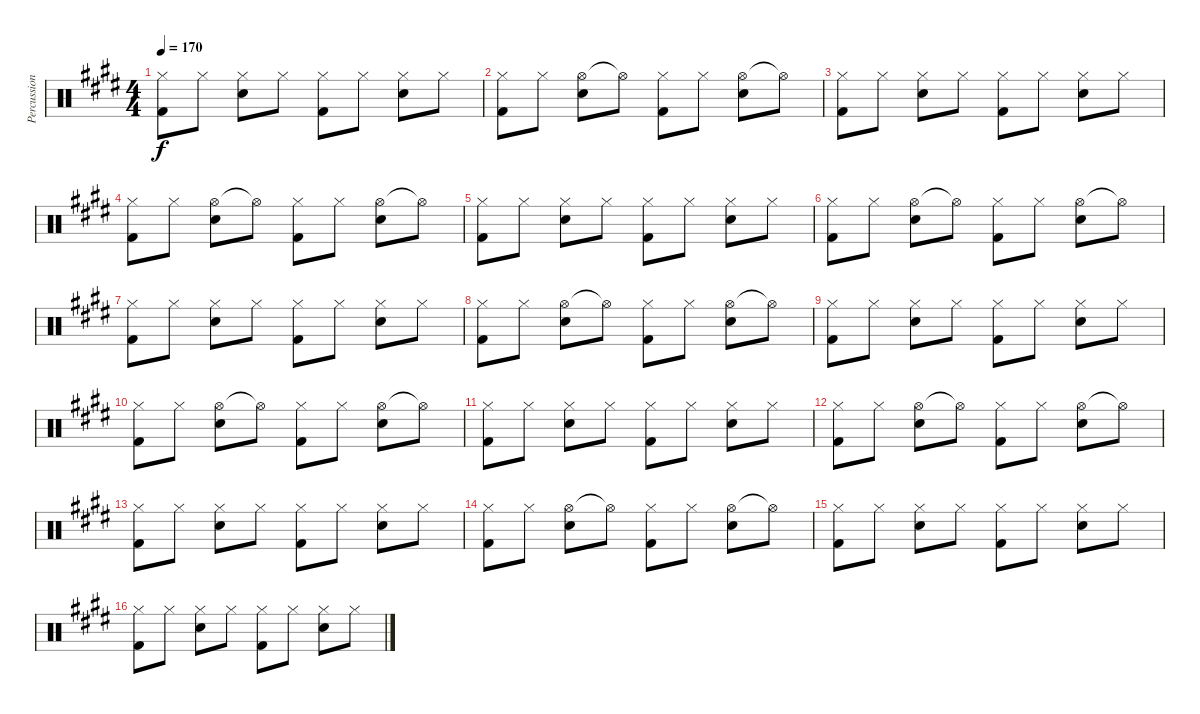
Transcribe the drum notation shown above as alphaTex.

\track ("Percussion" "Percussion") {instrument percussion}
\staff {score}
\articulation defaults
\ts (4 4)
\tempo 170
\clef neutral
\ks e
("Hi-Hat (closed)" "Kick (hit) 2").8{dy f} "Hi-Hat (closed)".8 ("Hi-Hat (closed)" "Snare (hit) 2").8 "Hi-Hat (closed)".8 ("Hi-Hat (closed)" "Kick (hit) 2").8 "Hi-Hat (closed)".8 ("Hi-Hat (closed)" "Snare (hit) 2").8 "Hi-Hat (closed)".8 |
("Hi-Hat (closed)" "Kick (hit) 2").8 "Hi-Hat (closed)".8 ("Hi-Hat (open)" "Snare (hit) 2").8 "Hi-Hat (open)"{t}.8 ("Hi-Hat (closed)" "Kick (hit) 2").8 "Hi-Hat (closed)".8 ("Hi-Hat (open)" "Snare (hit) 2").8 "Hi-Hat (open)"{t}.8 |
("Hi-Hat (closed)" "Kick (hit) 2").8 "Hi-Hat (closed)".8 ("Hi-Hat (closed)" "Snare (hit) 2").8 "Hi-Hat (closed)".8 ("Hi-Hat (closed)" "Kick (hit) 2").8 "Hi-Hat (closed)".8 ("Hi-Hat (closed)" "Snare (hit) 2").8 "Hi-Hat (closed)".8 |
("Hi-Hat (closed)" "Kick (hit) 2").8 "Hi-Hat (closed)".8 ("Hi-Hat (open)" "Snare (hit) 2").8 "Hi-Hat (open)"{t}.8 ("Hi-Hat (closed)" "Kick (hit) 2").8 "Hi-Hat (closed)".8 ("Hi-Hat (open)" "Snare (hit) 2").8 "Hi-Hat (open)"{t}.8 |
("Hi-Hat (closed)" "Kick (hit) 2").8 "Hi-Hat (closed)".8 ("Hi-Hat (closed)" "Snare (hit) 2").8 "Hi-Hat (closed)".8 ("Hi-Hat (closed)" "Kick (hit) 2").8 "Hi-Hat (closed)".8 ("Hi-Hat (closed)" "Snare (hit) 2").8 "Hi-Hat (closed)".8 |
("Hi-Hat (closed)" "Kick (hit) 2").8 "Hi-Hat (closed)".8 ("Hi-Hat (open)" "Snare (hit) 2").8 "Hi-Hat (open)"{t}.8 ("Hi-Hat (closed)" "Kick (hit) 2").8 "Hi-Hat (closed)".8 ("Hi-Hat (open)" "Snare (hit) 2").8 "Hi-Hat (open)"{t}.8 |
("Hi-Hat (closed)" "Kick (hit) 2").8 "Hi-Hat (closed)".8 ("Hi-Hat (closed)" "Snare (hit) 2").8 "Hi-Hat (closed)".8 ("Hi-Hat (closed)" "Kick (hit) 2").8 "Hi-Hat (closed)".8 ("Hi-Hat (closed)" "Snare (hit) 2").8 "Hi-Hat (closed)".8 |
("Hi-Hat (closed)" "Kick (hit) 2").8 "Hi-Hat (closed)".8 ("Hi-Hat (open)" "Snare (hit) 2").8 "Hi-Hat (open)"{t}.8 ("Hi-Hat (closed)" "Kick (hit) 2").8 "Hi-Hat (closed)".8 ("Hi-Hat (open)" "Snare (hit) 2").8 "Hi-Hat (open)"{t}.8 |
("Hi-Hat (closed)" "Kick (hit) 2").8 "Hi-Hat (closed)".8 ("Hi-Hat (closed)" "Snare (hit) 2").8 "Hi-Hat (closed)".8 ("Hi-Hat (closed)" "Kick (hit) 2").8 "Hi-Hat (closed)".8 ("Hi-Hat (closed)" "Snare (hit) 2").8 "Hi-Hat (closed)".8 |
("Hi-Hat (closed)" "Kick (hit) 2").8 "Hi-Hat (closed)".8 ("Hi-Hat (open)" "Snare (hit) 2").8 "Hi-Hat (open)"{t}.8 ("Hi-Hat (closed)" "Kick (hit) 2").8 "Hi-Hat (closed)".8 ("Hi-Hat (open)" "Snare (hit) 2").8 "Hi-Hat (open)"{t}.8 |
("Hi-Hat (closed)" "Kick (hit) 2").8 "Hi-Hat (closed)".8 ("Hi-Hat (closed)" "Snare (hit) 2").8 "Hi-Hat (closed)".8 ("Hi-Hat (closed)" "Kick (hit) 2").8 "Hi-Hat (closed)".8 ("Hi-Hat (closed)" "Snare (hit) 2").8 "Hi-Hat (closed)".8 |
("Hi-Hat (closed)" "Kick (hit) 2").8 "Hi-Hat (closed)".8 ("Hi-Hat (open)" "Snare (hit) 2").8 "Hi-Hat (open)"{t}.8 ("Hi-Hat (closed)" "Kick (hit) 2").8 "Hi-Hat (closed)".8 ("Hi-Hat (open)" "Snare (hit) 2").8 "Hi-Hat (open)"{t}.8 |
("Hi-Hat (closed)" "Kick (hit) 2").8 "Hi-Hat (closed)".8 ("Hi-Hat (closed)" "Snare (hit) 2").8 "Hi-Hat (closed)".8 ("Hi-Hat (closed)" "Kick (hit) 2").8 "Hi-Hat (closed)".8 ("Hi-Hat (closed)" "Snare (hit) 2").8 "Hi-Hat (closed)".8 |
("Hi-Hat (closed)" "Kick (hit) 2").8 "Hi-Hat (closed)".8 ("Hi-Hat (open)" "Snare (hit) 2").8 "Hi-Hat (open)"{t}.8 ("Hi-Hat (closed)" "Kick (hit) 2").8 "Hi-Hat (closed)".8 ("Hi-Hat (open)" "Snare (hit) 2").8 "Hi-Hat (open)"{t}.8 |
("Hi-Hat (closed)" "Kick (hit) 2").8 "Hi-Hat (closed)".8 ("Hi-Hat (closed)" "Snare (hit) 2").8 "Hi-Hat (closed)".8 ("Hi-Hat (closed)" "Kick (hit) 2").8 "Hi-Hat (closed)".8 ("Hi-Hat (closed)" "Snare (hit) 2").8 "Hi-Hat (closed)".8 |
("Hi-Hat (closed)" "Kick (hit) 2").8 "Hi-Hat (closed)".8 ("Hi-Hat (closed)" "Snare (hit) 2").8 "Hi-Hat (closed)".8 ("Hi-Hat (closed)" "Kick (hit) 2").8 "Hi-Hat (closed)".8 ("Hi-Hat (closed)" "Snare (hit) 2").8 "Hi-Hat (closed)".8
